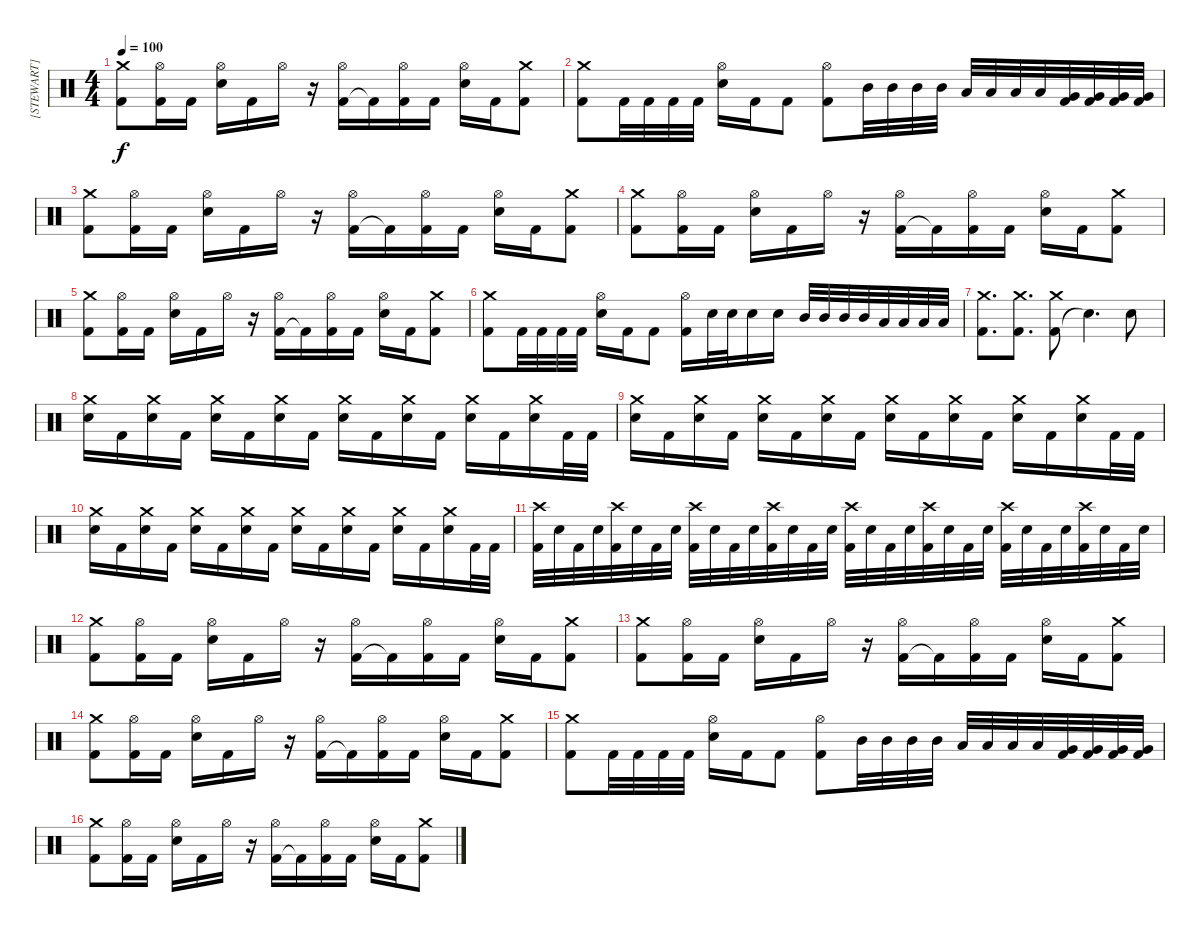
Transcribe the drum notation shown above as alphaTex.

\track ("[STEWART]" "[STEWART]") {instrument percussion}
\staff {score}
\articulation defaults
\ts (4 4)
\tempo 100
\clef neutral
\ks c
("Kick (hit) 2" "Crash medium (hit)").8{dy f} ("Kick (hit) 2" "Hi-Hat (open)").16 "Kick (hit) 2".16 ("Electric Snare (hit)" "Hi-Hat (open)").16 "Kick (hit) 2".16 "Hi-Hat (open)".16 r.16 ("Kick (hit) 2" "Hi-Hat (open)").16 "Kick (hit) 2"{t}.16 ("Kick (hit) 2" "Hi-Hat (open)").16 "Kick (hit) 2".16 ("Electric Snare (hit)" "Hi-Hat (open)").16 "Kick (hit) 2".16 ("Kick (hit) 2" "Crash medium (hit)").8 |
("Kick (hit) 2" "Crash medium (hit)").8 "Kick (hit) 2".32 "Kick (hit) 2".32 "Kick (hit) 2".32 "Kick (hit) 2".32 ("Electric Snare (hit)" "Hi-Hat (open)").16 "Kick (hit) 2".16 "Kick (hit) 2".8 ("Kick (hit) 2" "Hi-Hat (open)").8 "Mid Tom (hit)".32 "Mid Tom (hit)".32 "Mid Tom (hit)".32 "Mid Tom (hit)".32 "Low Tom (hit)".32 "Low Tom (hit)".32 "Low Tom (hit)".32 "Low Tom (hit)".32 ("Very Low Tom (hit)" "Kick (hit) 2").32 ("Very Low Tom (hit)" "Kick (hit) 2").32 ("Very Low Tom (hit)" "Kick (hit) 2").32 ("Very Low Tom (hit)" "Kick (hit) 2").32 |
("Kick (hit) 2" "Crash medium (hit)").8 ("Kick (hit) 2" "Hi-Hat (open)").16 "Kick (hit) 2".16 ("Electric Snare (hit)" "Hi-Hat (open)").16 "Kick (hit) 2".16 "Hi-Hat (open)".16 r.16 ("Kick (hit) 2" "Hi-Hat (open)").16 "Kick (hit) 2"{t}.16 ("Kick (hit) 2" "Hi-Hat (open)").16 "Kick (hit) 2".16 ("Electric Snare (hit)" "Hi-Hat (open)").16 "Kick (hit) 2".16 ("Kick (hit) 2" "Crash medium (hit)").8 |
("Kick (hit) 2" "Crash medium (hit)").8 ("Kick (hit) 2" "Hi-Hat (open)").16 "Kick (hit) 2".16 ("Electric Snare (hit)" "Hi-Hat (open)").16 "Kick (hit) 2".16 "Hi-Hat (open)".16 r.16 ("Kick (hit) 2" "Hi-Hat (open)").16 "Kick (hit) 2"{t}.16 ("Kick (hit) 2" "Hi-Hat (open)").16 "Kick (hit) 2".16 ("Electric Snare (hit)" "Hi-Hat (open)").16 "Kick (hit) 2".16 ("Kick (hit) 2" "Crash medium (hit)").8 |
("Kick (hit) 2" "Crash medium (hit)").8 ("Kick (hit) 2" "Hi-Hat (open)").16 "Kick (hit) 2".16 ("Electric Snare (hit)" "Hi-Hat (open)").16 "Kick (hit) 2".16 "Hi-Hat (open)".16 r.16 ("Kick (hit) 2" "Hi-Hat (open)").16 "Kick (hit) 2"{t}.16 ("Kick (hit) 2" "Hi-Hat (open)").16 "Kick (hit) 2".16 ("Electric Snare (hit)" "Hi-Hat (open)").16 "Kick (hit) 2".16 ("Kick (hit) 2" "Crash medium (hit)").8 |
("Kick (hit) 2" "Crash medium (hit)").8 "Kick (hit) 2".32 "Kick (hit) 2".32 "Kick (hit) 2".32 "Kick (hit) 2".32 ("Electric Snare (hit)" "Hi-Hat (open)").16 "Kick (hit) 2".16 "Kick (hit) 2".8 ("Kick (hit) 2" "Hi-Hat (open)").16 "Electric Snare (hit)".32 "Electric Snare (hit)".32 "Electric Snare (hit)".16 "Electric Snare (hit)".16 "Mid Tom (hit)".32 "Mid Tom (hit)".32 "Mid Tom (hit)".32 "Mid Tom (hit)".32 "Low Tom (hit)".32 "Low Tom (hit)".32 "Low Tom (hit)".32 "Low Tom (hit)".32 |
("Kick (hit) 2" "Crash medium (hit)").8{d} ("Kick (hit) 2" "Crash medium (hit)").8{d} ("Kick (hit) 2" "Crash medium (hit)").8 "Snare (hit)"{t}.4{d} "Electric Snare (hit)".8 |
("Electric Snare (hit)" "Crash medium (hit)").16 "Kick (hit) 2".16 ("Electric Snare (hit)" "Crash medium (hit)").16 "Kick (hit) 2".16 ("Electric Snare (hit)" "Crash medium (hit)").16 "Kick (hit) 2".16 ("Electric Snare (hit)" "Crash medium (hit)").16 "Kick (hit) 2".16 ("Electric Snare (hit)" "Crash medium (hit)").16 "Kick (hit) 2".16 ("Electric Snare (hit)" "Crash medium (hit)").16 "Kick (hit) 2".16 ("Electric Snare (hit)" "Crash medium (hit)").16 "Kick (hit) 2".16 ("Electric Snare (hit)" "Crash medium (hit)").16 "Kick (hit) 2".32 "Kick (hit) 2".32 |
("Electric Snare (hit)" "Crash medium (hit)").16 "Kick (hit) 2".16 ("Electric Snare (hit)" "Crash medium (hit)").16 "Kick (hit) 2".16 ("Electric Snare (hit)" "Crash medium (hit)").16 "Kick (hit) 2".16 ("Electric Snare (hit)" "Crash medium (hit)").16 "Kick (hit) 2".16 ("Electric Snare (hit)" "Crash medium (hit)").16 "Kick (hit) 2".16 ("Electric Snare (hit)" "Crash medium (hit)").16 "Kick (hit) 2".16 ("Electric Snare (hit)" "Crash medium (hit)").16 "Kick (hit) 2".16 ("Electric Snare (hit)" "Crash medium (hit)").16 "Kick (hit) 2".32 "Kick (hit) 2".32 |
("Electric Snare (hit)" "Crash medium (hit)").16 "Kick (hit) 2".16 ("Electric Snare (hit)" "Crash medium (hit)").16 "Kick (hit) 2".16 ("Electric Snare (hit)" "Crash medium (hit)").16 "Kick (hit) 2".16 ("Electric Snare (hit)" "Crash medium (hit)").16 "Kick (hit) 2".16 ("Electric Snare (hit)" "Crash medium (hit)").16 "Kick (hit) 2".16 ("Electric Snare (hit)" "Crash medium (hit)").16 "Kick (hit) 2".16 ("Electric Snare (hit)" "Crash medium (hit)").16 "Kick (hit) 2".16 ("Electric Snare (hit)" "Crash medium (hit)").16 "Kick (hit) 2".32 "Kick (hit) 2".32 |
("Kick (hit) 2" "Crash high (hit)").32 "Electric Snare (hit)".32 "Kick (hit) 2".32 "Electric Snare (hit)".32 ("Kick (hit) 2" "Crash high (hit)").32 "Electric Snare (hit)".32 "Kick (hit) 2".32 "Electric Snare (hit)".32 ("Kick (hit) 2" "Crash high (hit)").32 "Electric Snare (hit)".32 "Kick (hit) 2".32 "Electric Snare (hit)".32 ("Kick (hit) 2" "Crash high (hit)").32 "Electric Snare (hit)".32 "Kick (hit) 2".32 "Electric Snare (hit)".32 ("Kick (hit) 2" "Crash high (hit)").32 "Electric Snare (hit)".32 "Kick (hit) 2".32 "Electric Snare (hit)".32 ("Kick (hit) 2" "Crash high (hit)").32 "Electric Snare (hit)".32 "Kick (hit) 2".32 "Electric Snare (hit)".32 ("Kick (hit) 2" "Crash high (hit)").32 "Electric Snare (hit)".32 "Kick (hit) 2".32 "Electric Snare (hit)".32 ("Kick (hit) 2" "Crash high (hit)").32 "Electric Snare (hit)".32 "Kick (hit) 2".32 "Electric Snare (hit)".32 |
("Kick (hit) 2" "Crash medium (hit)").8 ("Kick (hit) 2" "Hi-Hat (open)").16 "Kick (hit) 2".16 ("Electric Snare (hit)" "Hi-Hat (open)").16 "Kick (hit) 2".16 "Hi-Hat (open)".16 r.16 ("Kick (hit) 2" "Hi-Hat (open)").16 "Kick (hit) 2"{t}.16 ("Kick (hit) 2" "Hi-Hat (open)").16 "Kick (hit) 2".16 ("Electric Snare (hit)" "Hi-Hat (open)").16 "Kick (hit) 2".16 ("Kick (hit) 2" "Crash medium (hit)").8 |
("Kick (hit) 2" "Crash medium (hit)").8 ("Kick (hit) 2" "Hi-Hat (open)").16 "Kick (hit) 2".16 ("Electric Snare (hit)" "Hi-Hat (open)").16 "Kick (hit) 2".16 "Hi-Hat (open)".16 r.16 ("Kick (hit) 2" "Hi-Hat (open)").16 "Kick (hit) 2"{t}.16 ("Kick (hit) 2" "Hi-Hat (open)").16 "Kick (hit) 2".16 ("Electric Snare (hit)" "Hi-Hat (open)").16 "Kick (hit) 2".16 ("Kick (hit) 2" "Crash medium (hit)").8 |
("Kick (hit) 2" "Crash medium (hit)").8 ("Kick (hit) 2" "Hi-Hat (open)").16 "Kick (hit) 2".16 ("Electric Snare (hit)" "Hi-Hat (open)").16 "Kick (hit) 2".16 "Hi-Hat (open)".16 r.16 ("Kick (hit) 2" "Hi-Hat (open)").16 "Kick (hit) 2"{t}.16 ("Kick (hit) 2" "Hi-Hat (open)").16 "Kick (hit) 2".16 ("Electric Snare (hit)" "Hi-Hat (open)").16 "Kick (hit) 2".16 ("Kick (hit) 2" "Crash medium (hit)").8 |
("Kick (hit) 2" "Crash medium (hit)").8 "Kick (hit) 2".32 "Kick (hit) 2".32 "Kick (hit) 2".32 "Kick (hit) 2".32 ("Electric Snare (hit)" "Hi-Hat (open)").16 "Kick (hit) 2".16 "Kick (hit) 2".8 ("Kick (hit) 2" "Hi-Hat (open)").8 "Mid Tom (hit)".32 "Mid Tom (hit)".32 "Mid Tom (hit)".32 "Mid Tom (hit)".32 "Low Tom (hit)".32 "Low Tom (hit)".32 "Low Tom (hit)".32 "Low Tom (hit)".32 ("Very Low Tom (hit)" "Kick (hit) 2").32 ("Very Low Tom (hit)" "Kick (hit) 2").32 ("Very Low Tom (hit)" "Kick (hit) 2").32 ("Very Low Tom (hit)" "Kick (hit) 2").32 |
("Kick (hit) 2" "Crash medium (hit)").8 ("Kick (hit) 2" "Hi-Hat (open)").16 "Kick (hit) 2".16 ("Electric Snare (hit)" "Hi-Hat (open)").16 "Kick (hit) 2".16 "Hi-Hat (open)".16 r.16 ("Kick (hit) 2" "Hi-Hat (open)").16 "Kick (hit) 2"{t}.16 ("Kick (hit) 2" "Hi-Hat (open)").16 "Kick (hit) 2".16 ("Electric Snare (hit)" "Hi-Hat (open)").16 "Kick (hit) 2".16 ("Kick (hit) 2" "Crash medium (hit)").8
